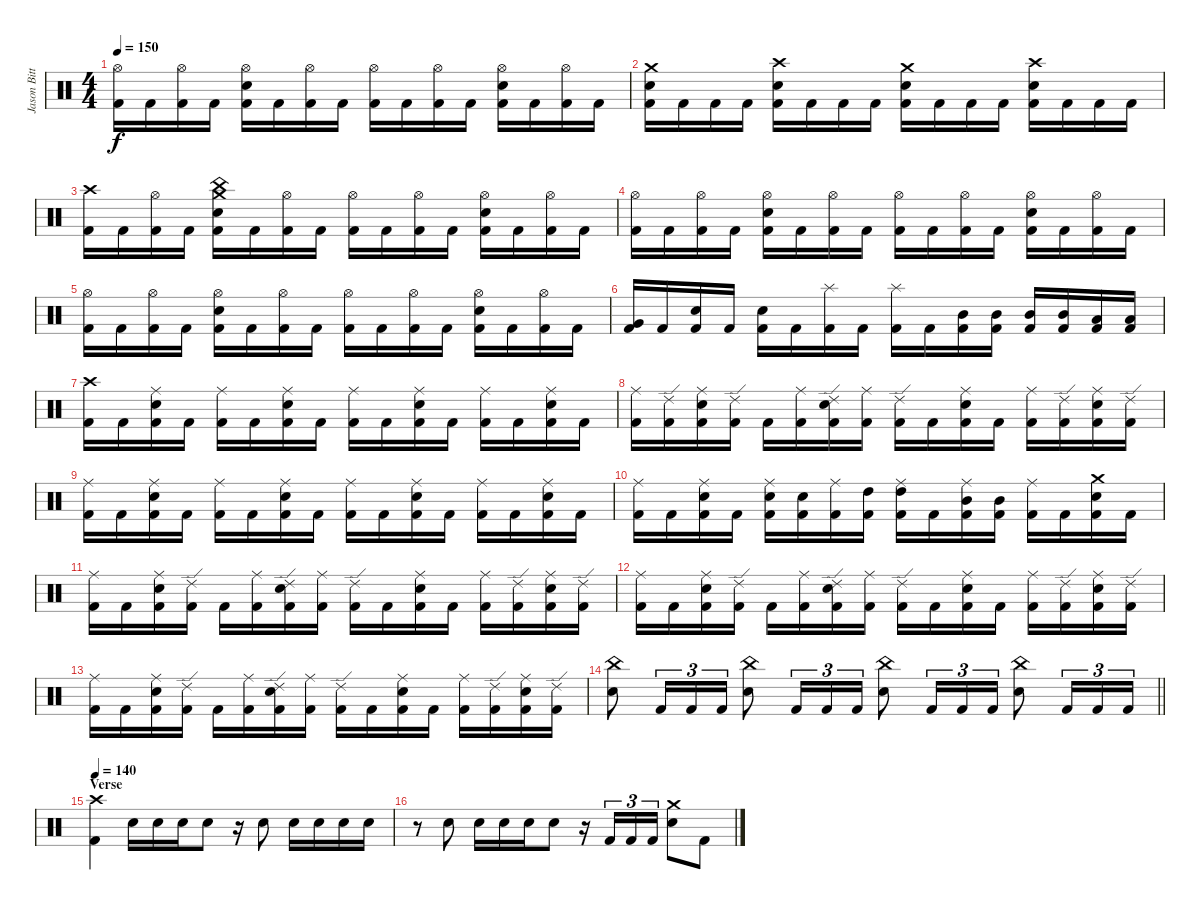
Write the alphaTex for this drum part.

\track ("Jason Bittner" "Jason Bitt") {instrument percussion}
\staff {score}
\articulation defaults
\ts (4 4)
\tempo 150
\clef neutral
\ks c
("Hi-Hat (open)" "Kick (hit) 2").16{dy f} "Kick (hit) 2".16 ("Hi-Hat (open)" "Kick (hit) 2").16 "Kick (hit) 2".16 ("Hi-Hat (open)" "Electric Snare (hit)" "Kick (hit) 2").16 "Kick (hit) 2".16 ("Hi-Hat (open)" "Kick (hit) 2").16 "Kick (hit) 2".16 ("Hi-Hat (open)" "Kick (hit) 2").16 "Kick (hit) 2".16 ("Hi-Hat (open)" "Kick (hit) 2").16 "Kick (hit) 2".16 ("Hi-Hat (open)" "Electric Snare (hit)" "Kick (hit) 2").16 "Kick (hit) 2".16 ("Hi-Hat (open)" "Kick (hit) 2").16 "Kick (hit) 2".16 |
("Crash medium (hit)" "Electric Snare (hit)" "Kick (hit) 2").16 "Kick (hit) 2".16 "Kick (hit) 2".16 "Kick (hit) 2".16 ("Crash high (hit)" "Electric Snare (hit)" "Kick (hit) 2").16 "Kick (hit) 2".16 "Kick (hit) 2".16 "Kick (hit) 2".16 ("Crash medium (hit)" "Electric Snare (hit)" "Kick (hit) 2").16 "Kick (hit) 2".16 "Kick (hit) 2".16 "Kick (hit) 2".16 ("Crash high (hit)" "Electric Snare (hit)" "Kick (hit) 2").16 "Kick (hit) 2".16 "Kick (hit) 2".16 "Kick (hit) 2".16 |
("Crash high (hit)" "Kick (hit) 2").16 "Kick (hit) 2".16 ("Hi-Hat (open)" "Kick (hit) 2").16 "Kick (hit) 2".16 ("China (hit)" "Crash medium (hit)" "Electric Snare (hit)" "Kick (hit) 2").16 "Kick (hit) 2".16 ("Hi-Hat (open)" "Kick (hit) 2").16 "Kick (hit) 2".16 ("Hi-Hat (open)" "Kick (hit) 2").16 "Kick (hit) 2".16 ("Hi-Hat (open)" "Kick (hit) 2").16 "Kick (hit) 2".16 ("Hi-Hat (open)" "Electric Snare (hit)" "Kick (hit) 2").16 "Kick (hit) 2".16 ("Hi-Hat (open)" "Kick (hit) 2").16 "Kick (hit) 2".16 |
("Hi-Hat (open)" "Kick (hit) 2").16 "Kick (hit) 2".16 ("Hi-Hat (open)" "Kick (hit) 2").16 "Kick (hit) 2".16 ("Hi-Hat (open)" "Electric Snare (hit)" "Kick (hit) 2").16 "Kick (hit) 2".16 ("Hi-Hat (open)" "Kick (hit) 2").16 "Kick (hit) 2".16 ("Hi-Hat (open)" "Kick (hit) 2").16 "Kick (hit) 2".16 ("Hi-Hat (open)" "Kick (hit) 2").16 "Kick (hit) 2".16 ("Hi-Hat (open)" "Electric Snare (hit)" "Kick (hit) 2").16 "Kick (hit) 2".16 ("Hi-Hat (open)" "Kick (hit) 2").16 "Kick (hit) 2".16 |
("Hi-Hat (open)" "Kick (hit) 2").16 "Kick (hit) 2".16 ("Hi-Hat (open)" "Kick (hit) 2").16 "Kick (hit) 2".16 ("Hi-Hat (open)" "Electric Snare (hit)" "Kick (hit) 2").16 "Kick (hit) 2".16 ("Hi-Hat (open)" "Kick (hit) 2").16 "Kick (hit) 2".16 ("Hi-Hat (open)" "Kick (hit) 2").16 "Kick (hit) 2".16 ("Hi-Hat (open)" "Kick (hit) 2").16 "Kick (hit) 2".16 ("Hi-Hat (open)" "Electric Snare (hit)" "Kick (hit) 2").16 "Kick (hit) 2".16 ("Hi-Hat (open)" "Kick (hit) 2").16 "Kick (hit) 2".16 |
("Very Low Tom (hit)" "Kick (hit) 2").16 "Kick (hit) 2".16 ("Electric Snare (hit)" "Kick (hit) 2").16 "Kick (hit) 2".16 ("Electric Snare (hit)" "Kick (hit) 2").16 "Kick (hit) 2".16 ("Splash (hit)" "Kick (hit) 2").16 "Kick (hit) 2".16 ("Splash (hit)" "Kick (hit) 2").16 "Kick (hit) 2".16 ("Mid Tom (hit)" "Kick (hit) 2").16 ("Mid Tom (hit)" "Kick (hit) 2").16 ("Mid Tom (hit)" "Kick (hit) 2").16 ("Mid Tom (hit)" "Kick (hit) 2").16 ("Low Tom (hit)" "Kick (hit) 2").16 ("Low Tom (hit)" "Kick (hit) 2").16 |
("Crash high (hit)" "Kick (hit) 2").16 "Kick (hit) 2".16 ("Ride (middle)" "Electric Snare (hit)" "Kick (hit) 2").16 "Kick (hit) 2".16 ("Ride (middle)" "Kick (hit) 2").16 "Kick (hit) 2".16 ("Ride (middle)" "Electric Snare (hit)" "Kick (hit) 2").16 "Kick (hit) 2".16 ("Ride (middle)" "Kick (hit) 2").16 "Kick (hit) 2".16 ("Ride (middle)" "Electric Snare (hit)" "Kick (hit) 2").16 "Kick (hit) 2".16 ("Ride (middle)" "Kick (hit) 2").16 "Kick (hit) 2".16 ("Ride (middle)" "Electric Snare (hit)" "Kick (hit) 2").16 "Kick (hit) 2".16 |
("Ride (middle)" "Kick (hit) 2").16 ("Ride (edge) 2" "Kick (hit) 2").16 ("Ride (middle)" "Electric Snare (hit)" "Kick (hit) 2").16 ("Ride (edge) 2" "Kick (hit) 2").16 "Kick (hit) 2".16 ("Ride (middle)" "Kick (hit) 2").16 ("Ride (edge) 2" "Electric Snare (hit)" "Kick (hit) 2").16 ("Ride (middle)" "Kick (hit) 2").16 ("Ride (edge) 2" "Kick (hit) 2").16 "Kick (hit) 2".16 ("Ride (middle)" "Electric Snare (hit)" "Kick (hit) 2").16 "Kick (hit) 2".16 ("Ride (middle)" "Kick (hit) 2").16 ("Ride (edge) 2" "Kick (hit) 2").16 ("Ride (middle)" "Electric Snare (hit)" "Kick (hit) 2").16 ("Ride (edge) 2" "Kick (hit) 2").16 |
("Ride (middle)" "Kick (hit) 2").16 "Kick (hit) 2".16 ("Ride (middle)" "Electric Snare (hit)" "Kick (hit) 2").16 "Kick (hit) 2".16 ("Ride (middle)" "Kick (hit) 2").16 "Kick (hit) 2".16 ("Ride (middle)" "Electric Snare (hit)" "Kick (hit) 2").16 "Kick (hit) 2".16 ("Ride (middle)" "Kick (hit) 2").16 "Kick (hit) 2".16 ("Ride (middle)" "Electric Snare (hit)" "Kick (hit) 2").16 "Kick (hit) 2".16 ("Ride (middle)" "Kick (hit) 2").16 "Kick (hit) 2".16 ("Ride (middle)" "Electric Snare (hit)" "Kick (hit) 2").16 "Kick (hit) 2".16 |
("Ride (middle)" "Kick (hit) 2").16 "Kick (hit) 2".16 ("Ride (middle)" "Electric Snare (hit)" "Kick (hit) 2").16 "Kick (hit) 2".16 ("Ride (middle)" "Electric Snare (hit)" "Kick (hit) 2").16 ("Electric Snare (hit)" "Kick (hit) 2").16 ("Ride (middle)" "Kick (hit) 2").16 ("High Tom (hit)" "Kick (hit) 2").16 ("Ride (middle)" "High Tom (hit)" "Kick (hit) 2").16 "Kick (hit) 2".16 ("Ride (middle)" "Mid Tom (hit)" "Kick (hit) 2").16 ("Mid Tom (hit)" "Kick (hit) 2").16 ("Ride (middle)" "Kick (hit) 2").16 "Kick (hit) 2".16 ("Crash medium (hit)" "Electric Snare (hit)" "Kick (hit) 2").16 "Kick (hit) 2".16 |
("Ride (middle)" "Kick (hit) 2").16 "Kick (hit) 2".16 ("Ride (middle)" "Electric Snare (hit)" "Kick (hit) 2").16 ("Ride (edge) 2" "Kick (hit) 2").16 "Kick (hit) 2".16 ("Ride (middle)" "Kick (hit) 2").16 ("Ride (edge) 2" "Electric Snare (hit)" "Kick (hit) 2").16 ("Ride (middle)" "Kick (hit) 2").16 ("Ride (edge) 2" "Kick (hit) 2").16 "Kick (hit) 2".16 ("Ride (middle)" "Electric Snare (hit)" "Kick (hit) 2").16 "Kick (hit) 2".16 ("Ride (middle)" "Kick (hit) 2").16 ("Ride (edge) 2" "Kick (hit) 2").16 ("Ride (middle)" "Electric Snare (hit)" "Kick (hit) 2").16 ("Ride (edge) 2" "Kick (hit) 2").16 |
("Ride (middle)" "Kick (hit) 2").16 "Kick (hit) 2".16 ("Ride (middle)" "Electric Snare (hit)" "Kick (hit) 2").16 ("Ride (edge) 2" "Kick (hit) 2").16 "Kick (hit) 2".16 ("Ride (middle)" "Kick (hit) 2").16 ("Ride (edge) 2" "Electric Snare (hit)" "Kick (hit) 2").16 ("Ride (middle)" "Kick (hit) 2").16 ("Ride (edge) 2" "Kick (hit) 2").16 "Kick (hit) 2".16 ("Ride (middle)" "Electric Snare (hit)" "Kick (hit) 2").16 "Kick (hit) 2".16 ("Ride (middle)" "Kick (hit) 2").16 ("Ride (edge) 2" "Kick (hit) 2").16 ("Ride (middle)" "Electric Snare (hit)" "Kick (hit) 2").16 ("Ride (edge) 2" "Kick (hit) 2").16 |
("Ride (middle)" "Kick (hit) 2").16 "Kick (hit) 2".16 ("Ride (middle)" "Electric Snare (hit)" "Kick (hit) 2").16 ("Ride (edge) 2" "Kick (hit) 2").16 "Kick (hit) 2".16 ("Ride (middle)" "Kick (hit) 2").16 ("Ride (edge) 2" "Electric Snare (hit)" "Kick (hit) 2").16 ("Ride (middle)" "Kick (hit) 2").16 ("Ride (edge) 2" "Kick (hit) 2").16 "Kick (hit) 2".16 ("Ride (middle)" "Electric Snare (hit)" "Kick (hit) 2").16 "Kick (hit) 2".16 ("Ride (middle)" "Kick (hit) 2").16 ("Ride (edge) 2" "Kick (hit) 2").16 ("Ride (middle)" "Electric Snare (hit)" "Kick (hit) 2").16 ("Ride (edge) 2" "Kick (hit) 2").16 |
\barLineRight lightlight
("China (hit)" "Electric Snare (hit)").8 "Kick (hit) 2".16{tu (3 2)} "Kick (hit) 2".16{tu (3 2)} "Kick (hit) 2".16{tu (3 2)} ("China (hit)" "Electric Snare (hit)").8 "Kick (hit) 2".16{tu (3 2)} "Kick (hit) 2".16{tu (3 2)} "Kick (hit) 2".16{tu (3 2)} ("China (hit)" "Electric Snare (hit)").8 "Kick (hit) 2".16{tu (3 2)} "Kick (hit) 2".16{tu (3 2)} "Kick (hit) 2".16{tu (3 2)} ("China (hit)" "Electric Snare (hit)").8 "Kick (hit) 2".16{tu (3 2)} "Kick (hit) 2".16{tu (3 2)} "Kick (hit) 2".16{tu (3 2)} |
\section ("" "Verse")
\tempo 140
("Crash high (hit)" "Kick (hit) 2").4 "Electric Snare (hit)".16 "Electric Snare (hit)".16 "Electric Snare (hit)".16 "Electric Snare (hit)".8 r.16 "Electric Snare (hit)".8 "Electric Snare (hit)".16 "Electric Snare (hit)".16 "Electric Snare (hit)".16 "Electric Snare (hit)".16 |
r.8 "Electric Snare (hit)".8 "Electric Snare (hit)".16 "Electric Snare (hit)".16 "Electric Snare (hit)".16 "Electric Snare (hit)".8 r.16 "Kick (hit) 2".16{tu (3 2)} "Kick (hit) 2".16{tu (3 2)} "Kick (hit) 2".16{tu (3 2)} ("Crash medium (hit)" "Electric Snare (hit)").8 "Kick (hit) 2".8
